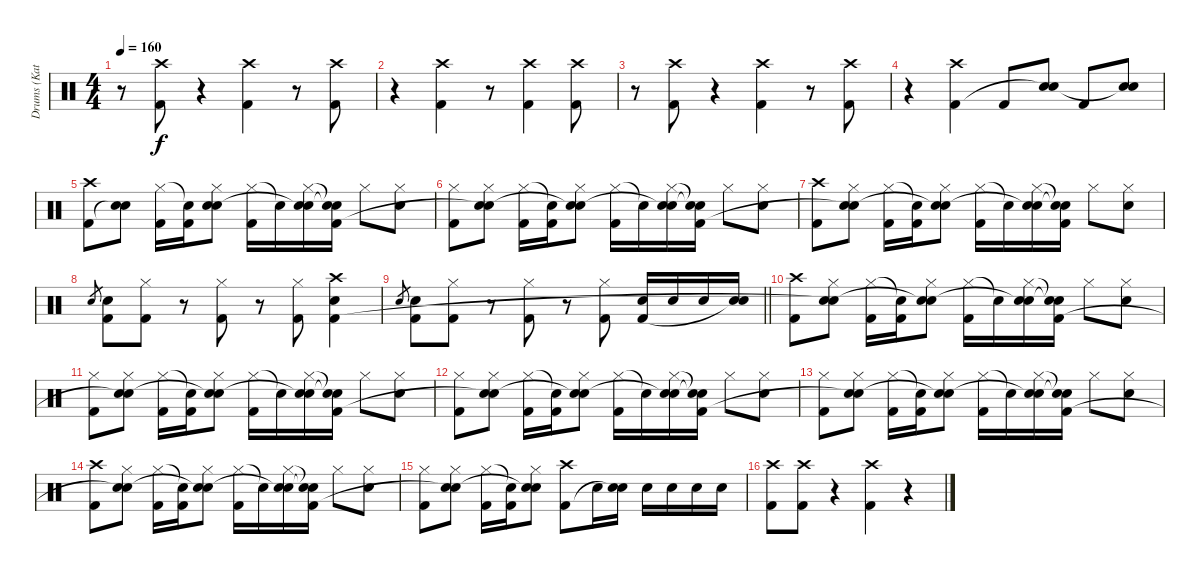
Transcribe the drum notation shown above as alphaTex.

\track ("Drums (Katsuji)" "Drums (Kat") {instrument percussion}
\staff {score}
\articulation defaults
\ts (4 4)
\tempo 160
\clef neutral
\ks c
r.8{dy f} ("Crash high (hit)" "Kick (hit) 2").8 r.4 ("Crash high (hit)" "Kick (hit) 2").4 r.8 ("Crash high (hit)" "Kick (hit) 2").8 |
r.4 ("Crash high (hit)" "Kick (hit) 2").4 r.8 ("Crash high (hit)" "Kick (hit) 2").4 ("Crash high (hit)" "Kick (hit) 2").8 |
r.8 ("Crash high (hit)" "Kick (hit) 2").8 r.4 ("Crash high (hit)" "Kick (hit) 2").4 r.8 ("Crash high (hit)" "Kick (hit) 2").8 |
r.4 ("Crash high (hit)" "Kick (hit) 2").4 "Kick (hit) 2".8 ("Snare (hit) 2" "Snare (hit)"{t}).8 "Kick (hit) 2".8 ("Snare (hit) 2" "Snare (hit)"{t}).8 |
("Crash high (hit)" "Kick (hit) 2").8 ("Snare (hit) 2" "Snare (hit)"{t}).8 ("Hi-Hat (closed)" "Kick (hit) 2").16 ("Snare (hit)"{t} "Kick (hit) 2").16 ("Hi-Hat (closed)" "Snare (hit) 2" "Snare (hit)").8 ("Hi-Hat (closed)" "Kick (hit) 2").16 "Snare (hit)"{t}.16 ("Hi-Hat (closed)" "Snare (hit) 2" "Snare (hit)"{t}).16 ("Snare (hit)"{t} "Snare (hit)"{t} "Kick (hit) 2").16 "Hi-Hat (closed)".8 ("Hi-Hat (closed)" "Snare (hit) 2").8 |
("Hi-Hat (closed)" "Kick (hit) 2").8 ("Hi-Hat (closed)" "Snare (hit) 2" "Snare (hit)"{t}).8 ("Hi-Hat (closed)" "Kick (hit) 2").16 ("Snare (hit)"{t} "Kick (hit) 2").16 ("Hi-Hat (closed)" "Snare (hit) 2" "Snare (hit)"{t}).8 ("Hi-Hat (closed)" "Kick (hit) 2").16 "Snare (hit)"{t}.16 ("Hi-Hat (closed)" "Snare (hit) 2" "Snare (hit)"{t}).16 ("Snare (hit)"{t} "Snare (hit)"{t} "Kick (hit) 2").16 "Hi-Hat (closed)".8 ("Hi-Hat (closed)" "Snare (hit) 2").8 |
("Crash high (hit)" "Kick (hit) 2").8 ("Hi-Hat (closed)" "Snare (hit) 2" "Snare (hit)"{t}).8 ("Hi-Hat (closed)" "Kick (hit) 2").16 ("Snare (hit)"{t} "Kick (hit) 2").16 ("Hi-Hat (closed)" "Snare (hit) 2" "Snare (hit)"{t}).8 ("Hi-Hat (closed)" "Kick (hit) 2").16 "Snare (hit)"{t}.16 ("Hi-Hat (closed)" "Snare (hit) 2" "Snare (hit)"{t}).16 ("Snare (hit)"{t} "Snare (hit)"{t} "Kick (hit) 2").16 "Hi-Hat (closed)".8 ("Hi-Hat (closed)" "Snare (hit) 2").8 |
"Snare (hit) 2".8{gr} ("Snare (hit) 2" "Kick (hit) 2").8 ("Hi-Hat (closed)" "Kick (hit) 2").8 r.8 ("Hi-Hat (closed)" "Kick (hit) 2").8 r.8 ("Hi-Hat (closed)" "Kick (hit) 2").8 ("Crash high (hit)" "Snare (hit) 2" "Kick (hit) 2").4 |
\barLineRight lightlight "Snare (hit) 2".8{gr}
("Snare (hit) 2" "Kick (hit) 2").8 ("Hi-Hat (closed)" "Kick (hit) 2").8 r.8 ("Hi-Hat (closed)" "Kick (hit) 2").8 r.8 ("Hi-Hat (closed)" "Kick (hit) 2").8 ("Snare (hit) 2" "Kick (hit) 2").16 "Snare (hit) 2".16 "Snare (hit) 2".16 ("Snare (hit) 2" "Snare (hit)"{t}).16 |
("Crash high (hit)" "Kick (hit) 2").8 ("Hi-Hat (closed)" "Snare (hit) 2" "Snare (hit)"{t}).8 ("Hi-Hat (closed)" "Kick (hit) 2").16 ("Snare (hit)"{t} "Kick (hit) 2").16 ("Hi-Hat (closed)" "Snare (hit) 2" "Snare (hit)"{t}).8 ("Hi-Hat (closed)" "Kick (hit) 2").16 "Snare (hit)"{t}.16 ("Hi-Hat (closed)" "Snare (hit) 2" "Snare (hit)"{t}).16 ("Snare (hit)"{t} "Snare (hit)"{t} "Kick (hit) 2").16 "Hi-Hat (closed)".8 ("Hi-Hat (closed)" "Snare (hit) 2").8 |
("Hi-Hat (closed)" "Kick (hit) 2").8 ("Hi-Hat (closed)" "Snare (hit) 2" "Snare (hit)"{t}).8 ("Hi-Hat (closed)" "Kick (hit) 2").16 ("Snare (hit)"{t} "Kick (hit) 2").16 ("Hi-Hat (closed)" "Snare (hit) 2" "Snare (hit)"{t}).8 ("Hi-Hat (closed)" "Kick (hit) 2").16 "Snare (hit)"{t}.16 ("Hi-Hat (closed)" "Snare (hit) 2" "Snare (hit)"{t}).16 ("Snare (hit)"{t} "Snare (hit)"{t} "Kick (hit) 2").16 "Hi-Hat (closed)".8 ("Hi-Hat (closed)" "Snare (hit) 2").8 |
("Hi-Hat (closed)" "Kick (hit) 2").8 ("Hi-Hat (closed)" "Snare (hit) 2" "Snare (hit)"{t}).8 ("Hi-Hat (closed)" "Kick (hit) 2").16 ("Snare (hit)"{t} "Kick (hit) 2").16 ("Hi-Hat (closed)" "Snare (hit) 2" "Snare (hit)"{t}).8 ("Hi-Hat (closed)" "Kick (hit) 2").16 "Snare (hit)"{t}.16 ("Hi-Hat (closed)" "Snare (hit) 2" "Snare (hit)"{t}).16 ("Snare (hit)"{t} "Snare (hit)"{t} "Kick (hit) 2").16 "Hi-Hat (closed)".8 ("Hi-Hat (closed)" "Snare (hit) 2").8 |
("Hi-Hat (closed)" "Kick (hit) 2").8 ("Hi-Hat (closed)" "Snare (hit) 2" "Snare (hit)"{t}).8 ("Hi-Hat (closed)" "Kick (hit) 2").16 ("Snare (hit)"{t} "Kick (hit) 2").16 ("Hi-Hat (closed)" "Snare (hit) 2" "Snare (hit)"{t}).8 ("Hi-Hat (closed)" "Kick (hit) 2").16 "Snare (hit)"{t}.16 ("Hi-Hat (closed)" "Snare (hit) 2" "Snare (hit)"{t}).16 ("Snare (hit)"{t} "Snare (hit)"{t} "Kick (hit) 2").16 "Hi-Hat (closed)".8 ("Hi-Hat (closed)" "Snare (hit) 2").8 |
("Crash high (hit)" "Kick (hit) 2").8 ("Hi-Hat (closed)" "Snare (hit) 2" "Snare (hit)"{t}).8 ("Hi-Hat (closed)" "Kick (hit) 2").16 ("Snare (hit)"{t} "Kick (hit) 2").16 ("Hi-Hat (closed)" "Snare (hit) 2" "Snare (hit)"{t}).8 ("Hi-Hat (closed)" "Kick (hit) 2").16 "Snare (hit)"{t}.16 ("Hi-Hat (closed)" "Snare (hit) 2" "Snare (hit)"{t}).16 ("Snare (hit)"{t} "Snare (hit)"{t} "Kick (hit) 2").16 "Hi-Hat (closed)".8 ("Hi-Hat (closed)" "Snare (hit) 2").8 |
("Hi-Hat (closed)" "Kick (hit) 2").8 ("Hi-Hat (closed)" "Snare (hit) 2" "Snare (hit)"{t}).8 ("Hi-Hat (closed)" "Kick (hit) 2").16 ("Snare (hit)"{t} "Kick (hit) 2").16 ("Hi-Hat (closed)" "Snare (hit) 2" "Snare (hit)"{t}).8 ("Crash high (hit)" "Kick (hit) 2").8 "Snare (hit) 2".16 ("Snare (hit) 2" "Snare (hit)"{t}).16 "Snare (hit) 2".16 "Snare (hit) 2".16 "Snare (hit) 2".16 "Snare (hit) 2".16 |
("Crash high (hit)" "Kick (hit) 2").8 ("Crash high (hit)" "Kick (hit) 2").8 r.4 ("Crash high (hit)" "Kick (hit) 2").4 r.4
